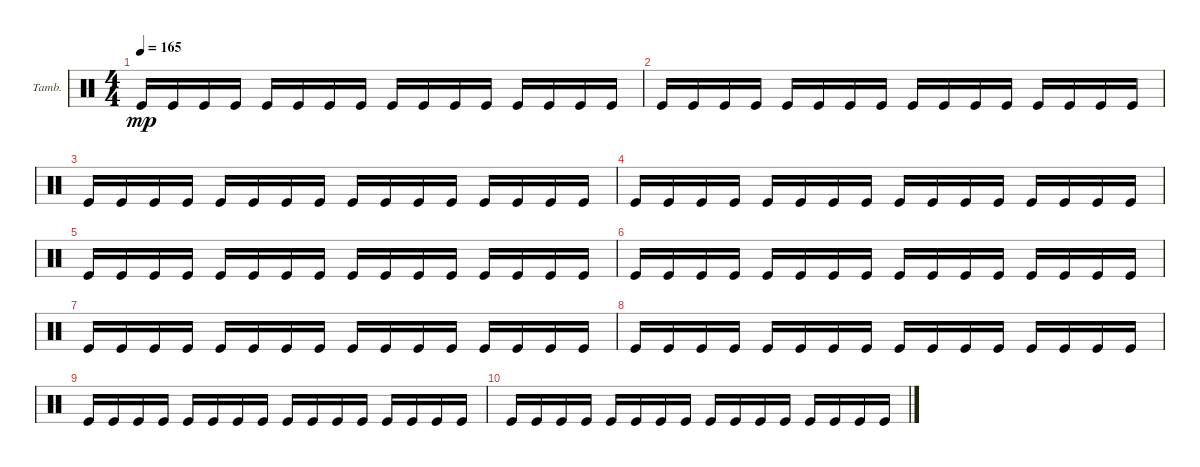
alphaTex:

\defaultSystemsLayout 4
\bracketExtendMode groupsimilarinstruments
\firstSystemTrackNameOrientation horizontal
\otherSystemsTrackNameOrientation horizontal
\track ("Tambourine" "Tamb.") {instrument percussion}
\staff {score}
\articulation defaults
\ts (4 4)
\tempo 165
\clef neutral
\ks c "Kick (hit)".16{dy mp} "Kick (hit)".16 "Kick (hit)".16 "Kick (hit)".16 "Kick (hit)".16 "Kick (hit)".16 "Kick (hit)".16 "Kick (hit)".16 "Kick (hit)".16 "Kick (hit)".16 "Kick (hit)".16 "Kick (hit)".16 "Kick (hit)".16 "Kick (hit)".16 "Kick (hit)".16 "Kick (hit)".16
|
"Kick (hit)".16 "Kick (hit)".16 "Kick (hit)".16 "Kick (hit)".16 "Kick (hit)".16 "Kick (hit)".16 "Kick (hit)".16 "Kick (hit)".16 "Kick (hit)".16 "Kick (hit)".16 "Kick (hit)".16 "Kick (hit)".16 "Kick (hit)".16 "Kick (hit)".16 "Kick (hit)".16 "Kick (hit)".16 |
"Kick (hit)".16 "Kick (hit)".16 "Kick (hit)".16 "Kick (hit)".16 "Kick (hit)".16 "Kick (hit)".16 "Kick (hit)".16 "Kick (hit)".16 "Kick (hit)".16 "Kick (hit)".16 "Kick (hit)".16 "Kick (hit)".16 "Kick (hit)".16 "Kick (hit)".16 "Kick (hit)".16 "Kick (hit)".16 |
"Kick (hit)".16 "Kick (hit)".16 "Kick (hit)".16 "Kick (hit)".16 "Kick (hit)".16 "Kick (hit)".16 "Kick (hit)".16 "Kick (hit)".16 "Kick (hit)".16 "Kick (hit)".16 "Kick (hit)".16 "Kick (hit)".16 "Kick (hit)".16 "Kick (hit)".16 "Kick (hit)".16 "Kick (hit)".16 |
"Kick (hit)".16 "Kick (hit)".16 "Kick (hit)".16 "Kick (hit)".16 "Kick (hit)".16 "Kick (hit)".16 "Kick (hit)".16 "Kick (hit)".16 "Kick (hit)".16 "Kick (hit)".16 "Kick (hit)".16 "Kick (hit)".16 "Kick (hit)".16 "Kick (hit)".16 "Kick (hit)".16 "Kick (hit)".16 |
"Kick (hit)".16 "Kick (hit)".16 "Kick (hit)".16 "Kick (hit)".16 "Kick (hit)".16 "Kick (hit)".16 "Kick (hit)".16 "Kick (hit)".16 "Kick (hit)".16 "Kick (hit)".16 "Kick (hit)".16 "Kick (hit)".16 "Kick (hit)".16 "Kick (hit)".16 "Kick (hit)".16 "Kick (hit)".16 |
"Kick (hit)".16 "Kick (hit)".16 "Kick (hit)".16 "Kick (hit)".16 "Kick (hit)".16 "Kick (hit)".16 "Kick (hit)".16 "Kick (hit)".16 "Kick (hit)".16 "Kick (hit)".16 "Kick (hit)".16 "Kick (hit)".16 "Kick (hit)".16 "Kick (hit)".16 "Kick (hit)".16 "Kick (hit)".16 |
"Kick (hit)".16 "Kick (hit)".16 "Kick (hit)".16 "Kick (hit)".16 "Kick (hit)".16 "Kick (hit)".16 "Kick (hit)".16 "Kick (hit)".16 "Kick (hit)".16 "Kick (hit)".16 "Kick (hit)".16 "Kick (hit)".16 "Kick (hit)".16 "Kick (hit)".16 "Kick (hit)".16 "Kick (hit)".16 |
"Kick (hit)".16 "Kick (hit)".16 "Kick (hit)".16 "Kick (hit)".16 "Kick (hit)".16 "Kick (hit)".16 "Kick (hit)".16 "Kick (hit)".16 "Kick (hit)".16 "Kick (hit)".16 "Kick (hit)".16 "Kick (hit)".16 "Kick (hit)".16 "Kick (hit)".16 "Kick (hit)".16 "Kick (hit)".16 |
"Kick (hit)".16 "Kick (hit)".16 "Kick (hit)".16 "Kick (hit)".16 "Kick (hit)".16 "Kick (hit)".16 "Kick (hit)".16 "Kick (hit)".16 "Kick (hit)".16 "Kick (hit)".16 "Kick (hit)".16 "Kick (hit)".16 "Kick (hit)".16 "Kick (hit)".16 "Kick (hit)".16 "Kick (hit)".16
